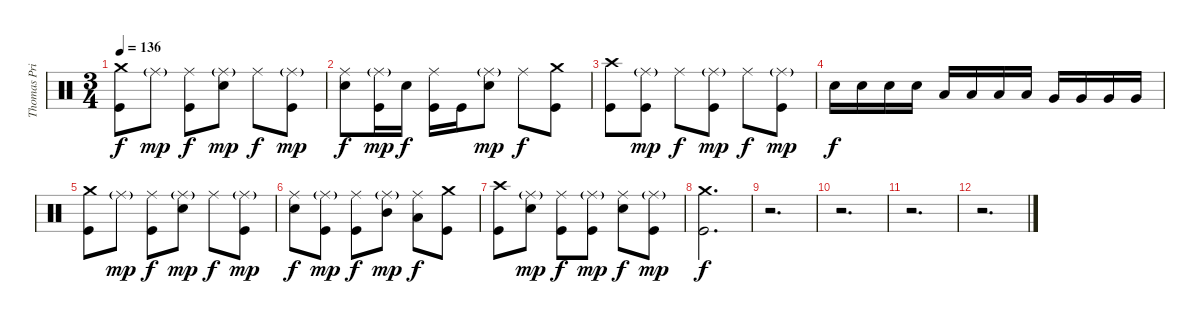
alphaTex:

\track ("Thomas Pridgen [Drum]" "Thomas Pri") {instrument percussion}
\staff {score}
\articulation defaults
\ts (3 4)
\tempo 136
\clef neutral
\ks c
("Crash medium (hit)" "Kick (hit)").8{dy f} "Ride (middle)"{g}.8{dy mp} ("Ride (middle)" "Kick (hit)").8{dy f} ("Ride (middle)"{g} "Electric Snare (hit)").8{dy mp} "Ride (middle)".8{dy f} ("Ride (middle)"{g} "Kick (hit)").8{dy mp} |
("Ride (middle)" "Electric Snare (hit)").8{dy f} ("Ride (middle)"{g} "Kick (hit)").16{dy mp} "Electric Snare (hit)".16{dy f} ("Ride (middle)" "Kick (hit)").16 "Kick (hit)".16 ("Ride (middle)"{g} "Electric Snare (hit)").8{dy mp} "Ride (middle)".8{dy f} ("Crash medium (hit)" "Kick (hit)").8 |
("Crash high (hit)" "Kick (hit)").8 ("Ride (middle)"{g} "Kick (hit)").8{dy mp} "Ride (middle)".8{dy f} ("Ride (middle)"{g} "Kick (hit)").8{dy mp} "Ride (middle)".8{dy f} ("Ride (middle)"{g} "Kick (hit)").8{dy mp} |
"Electric Snare (hit)".16{dy f} "Electric Snare (hit)".16 "Electric Snare (hit)".16 "Electric Snare (hit)".16 "Low Tom (hit)".16 "Low Tom (hit)".16 "Low Tom (hit)".16 "Low Tom (hit)".16 "Very Low Tom (hit)".16 "Very Low Tom (hit)".16 "Very Low Tom (hit)".16 "Very Low Tom (hit)".16 |
("Crash medium (hit)" "Kick (hit)").8 "Ride (middle)"{g}.8{dy mp} ("Ride (middle)" "Kick (hit)").8{dy f} ("Ride (middle)"{g} "Electric Snare (hit)").8{dy mp} "Ride (middle)".8{dy f} ("Ride (middle)"{g} "Kick (hit)").8{dy mp} |
("Ride (middle)" "Electric Snare (hit)").8{dy f} ("Ride (middle)"{g} "Kick (hit)").8{dy mp} ("Ride (middle)" "Kick (hit)").8{dy f} ("Ride (middle)"{g} "Mid Tom (hit)").8{dy mp} ("Ride (middle)" "Low Tom (hit)").8{dy f} ("Crash medium (hit)" "Kick (hit)").8 |
("Crash high (hit)" "Kick (hit)").8 ("Ride (middle)"{g} "Electric Snare (hit)").8{dy mp} ("Ride (middle)" "Kick (hit)").8{dy f} ("Ride (middle)"{g} "Kick (hit)").8{dy mp} ("Ride (middle)" "Electric Snare (hit)").8{dy f} ("Ride (middle)"{g} "Kick (hit)").8{dy mp} |
("Crash medium (hit)" "Kick (hit)").2{d dy f} |
r.2{d} |
r.2{d} |
r.2{d} |
r.2{d}
